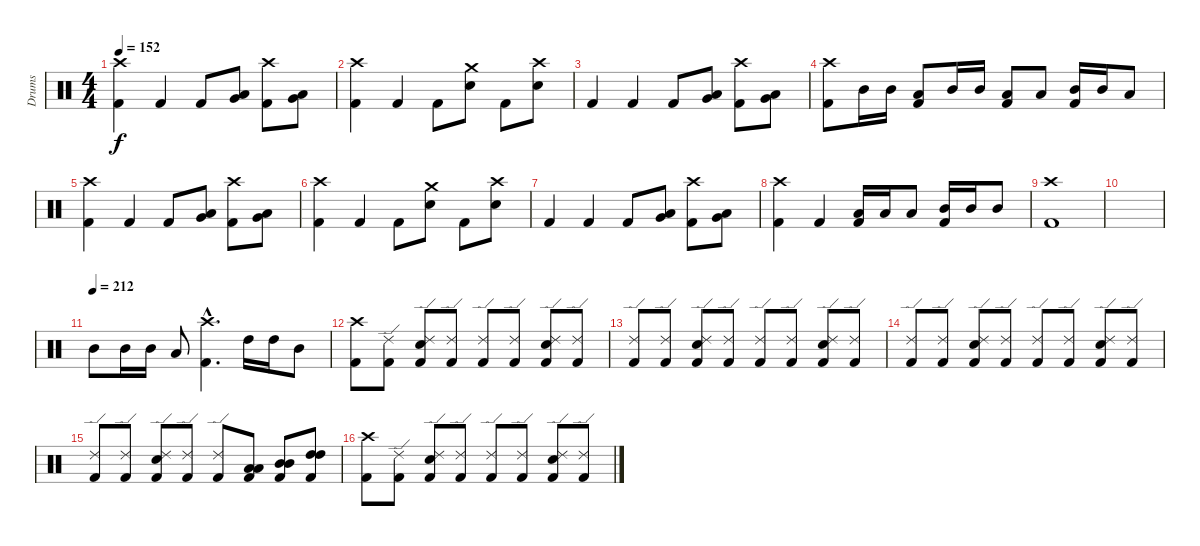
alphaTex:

\track ("Drums" "Drums") {instrument percussion}
\staff {score}
\articulation defaults
\ts (4 4)
\tempo 152
\clef neutral
\ks c
("Crash high (hit)" "Kick (hit) 2").4{dy f} "Kick (hit) 2".4 "Kick (hit) 2".8 ("Low Tom (hit)" "Very Low Tom (hit)").8 ("Crash high (hit)" "Kick (hit) 2").8 ("Low Tom (hit)" "Very Low Tom (hit)").8 |
("Crash high (hit)" "Kick (hit) 2").4 "Kick (hit) 2".4 "Kick (hit) 2".8 ("Crash medium (hit)" "Snare (hit) 2").8 "Kick (hit) 2".8 ("Crash high (hit)" "Snare (hit) 2").8 |
"Kick (hit) 2".4 "Kick (hit) 2".4 "Kick (hit) 2".8 ("Low Tom (hit)" "Very Low Tom (hit)").8 ("Crash high (hit)" "Kick (hit) 2").8 ("Low Tom (hit)" "Very Low Tom (hit)").8 |
("Crash high (hit)" "Kick (hit) 2").8 "Mid Tom (hit)".16 "Mid Tom (hit)".16 ("Low Tom (hit)" "Kick (hit) 2").8 "Mid Tom (hit)".16 "Mid Tom (hit)".16 ("Low Tom (hit)" "Kick (hit) 2").8 "Low Tom (hit)".8 ("Mid Tom (hit)" "Kick (hit) 2").16 "Mid Tom (hit)".16 "Low Tom (hit)".8 |
("Crash high (hit)" "Kick (hit) 2").4 "Kick (hit) 2".4 "Kick (hit) 2".8 ("Low Tom (hit)" "Very Low Tom (hit)").8 ("Crash high (hit)" "Kick (hit) 2").8 ("Low Tom (hit)" "Very Low Tom (hit)").8 |
("Crash high (hit)" "Kick (hit) 2").4 "Kick (hit) 2".4 "Kick (hit) 2".8 ("Crash medium (hit)" "Snare (hit) 2").8 "Kick (hit) 2".8 ("Crash high (hit)" "Snare (hit) 2").8 |
"Kick (hit) 2".4 "Kick (hit) 2".4 "Kick (hit) 2".8 ("Low Tom (hit)" "Very Low Tom (hit)").8 ("Crash high (hit)" "Kick (hit) 2").8 ("Low Tom (hit)" "Very Low Tom (hit)").8 |
("Crash high (hit)" "Kick (hit) 2").4 "Kick (hit) 2".4 ("Low Tom (hit)" "Kick (hit) 2").16 "Low Tom (hit)".16 "Low Tom (hit)".8 ("Mid Tom (hit)" "Kick (hit) 2").16 "Mid Tom (hit)".16 "Mid Tom (hit)".8 |
("Crash high (hit)" "Kick (hit) 2").1 |
|
\tempo (212)
"Mid Tom (hit)".8 "Mid Tom (hit)".16 "Mid Tom (hit)".16 "Low Tom (hit)".8 ("Crash high (hit)"{hac} "Kick (hit) 2"{hac}).4{d} "High Tom (hit)".16 "High Tom (hit)".16 "Mid Tom (hit)".8 |
("Crash high (hit)" "Kick (hit) 2").8 ("Kick (hit) 2" "Ride (edge) 2").8 ("Kick (hit) 2" "Snare (hit) 2" "Ride (edge) 2").8 ("Kick (hit) 2" "Ride (edge) 2").8 ("Kick (hit) 2" "Ride (edge) 2").8 ("Kick (hit) 2" "Ride (edge) 2").8 ("Kick (hit) 2" "Snare (hit) 2" "Ride (edge) 2").8 ("Kick (hit) 2" "Ride (edge) 2").8 |
("Kick (hit) 2" "Ride (edge) 2").8 ("Kick (hit) 2" "Ride (edge) 2").8 ("Kick (hit) 2" "Snare (hit) 2" "Ride (edge) 2").8 ("Kick (hit) 2" "Ride (edge) 2").8 ("Kick (hit) 2" "Ride (edge) 2").8 ("Kick (hit) 2" "Ride (edge) 2").8 ("Kick (hit) 2" "Snare (hit) 2" "Ride (edge) 2").8 ("Kick (hit) 2" "Ride (edge) 2").8 |
("Kick (hit) 2" "Ride (edge) 2").8 ("Kick (hit) 2" "Ride (edge) 2").8 ("Kick (hit) 2" "Snare (hit) 2" "Ride (edge) 2").8 ("Kick (hit) 2" "Ride (edge) 2").8 ("Kick (hit) 2" "Ride (edge) 2").8 ("Kick (hit) 2" "Ride (edge) 2").8 ("Kick (hit) 2" "Snare (hit) 2" "Ride (edge) 2").8 ("Kick (hit) 2" "Ride (edge) 2").8 |
("Kick (hit) 2" "Ride (edge) 2").8 ("Kick (hit) 2" "Ride (edge) 2").8 ("Kick (hit) 2" "Snare (hit) 2" "Ride (edge) 2").8 ("Kick (hit) 2" "Ride (edge) 2").8 ("Kick (hit) 2" "Ride (edge) 2").8 ("Kick (hit) 2" "Low Tom (hit)" "Low Tom (hit)").8 ("Kick (hit) 2" "Mid Tom (hit)" "Mid Tom (hit)").8 ("Kick (hit) 2" "High Tom (hit)" "High Tom (hit)").8 |
("Kick (hit) 2" "Crash high (hit)").8 ("Kick (hit) 2" "Ride (edge) 2").8 ("Kick (hit) 2" "Snare (hit) 2" "Ride (edge) 2").8 ("Kick (hit) 2" "Ride (edge) 2").8 ("Kick (hit) 2" "Ride (edge) 2").8 ("Kick (hit) 2" "Ride (edge) 2").8 ("Kick (hit) 2" "Snare (hit) 2" "Ride (edge) 2").8 ("Kick (hit) 2" "Ride (edge) 2").8
